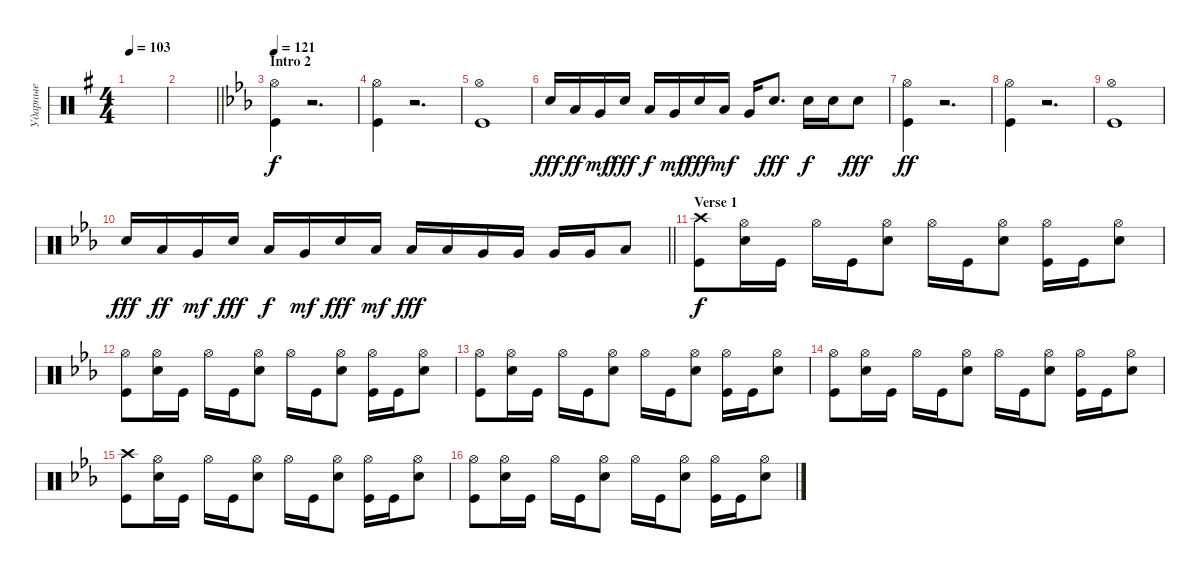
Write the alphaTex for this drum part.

\track ("Ударные" "Ударные") {instrument percussion}
\staff {score}
\articulation defaults
\ts (4 4)
\tempo 103
\clef neutral
\ks eminor
|
\barLineRight lightlight
|
\section ("" "Intro 2")
\tempo 121
\ks cminor
("Kick (hit)" "Hi-Hat (open)").4 r.2{d} |
("Kick (hit)" "Hi-Hat (open)").4 r.2{d} |
("Kick (hit)" "Hi-Hat (open)").1 |
"Snare (hit) 2".16{dy fff} "Low Tom (hit)".16{dy ff} "Very Low Tom (hit)".16{dy mf} "Snare (hit) 2".16{dy fff} "Low Tom (hit)".16{dy f} "Very Low Tom (hit)".16{dy mf} "Snare (hit) 2".16{dy fff} "Low Tom (hit)".16{dy mf} "Very Low Tom (hit)".16 "Snare (hit) 2".8{d dy fff} "Snare (hit) 2".16{dy f} "Snare (hit) 2".16 "Snare (hit) 2".8{dy fff} |
("Kick (hit)" "Hi-Hat (open)").4{dy ff} r.2{d} |
("Kick (hit)" "Hi-Hat (open)").4 r.2{d} |
("Kick (hit)" "Hi-Hat (open)").1 |
\barLineRight lightlight "Snare (hit) 2".16{dy fff} "Low Tom (hit)".16{dy ff} "Very Low Tom (hit)".16{dy mf} "Snare (hit) 2".16{dy fff} "Low Tom (hit)".16{dy f} "Very Low Tom (hit)".16{dy mf} "Snare (hit) 2".16{dy fff} "Low Tom (hit)".16{dy mf} "Low Tom (hit)".16{dy fff} "Low Tom (hit)".16 "Very Low Tom (hit)".16 "Very Low Tom (hit)".16 "Very Low Tom (hit)".16 "Very Low Tom (hit)".16 "Low Floor Tom (hit)".8
|
\section ("" "Verse 1")
("Kick (hit)" "Crash high (hit)").8{dy f} ("Snare (hit) 2" "Hi-Hat (open)").16 "Kick (hit)".16 "Hi-Hat (open)".16 "Kick (hit)".16 ("Snare (hit) 2" "Hi-Hat (open)").8 "Hi-Hat (open)".16 "Kick (hit)".16 ("Snare (hit) 2" "Hi-Hat (open)").8 ("Kick (hit)" "Hi-Hat (open)").16 "Kick (hit)".16 ("Snare (hit) 2" "Hi-Hat (open)").8 |
("Kick (hit)" "Hi-Hat (open)").8 ("Snare (hit) 2" "Hi-Hat (open)").16 "Kick (hit)".16 "Hi-Hat (open)".16 "Kick (hit)".16 ("Snare (hit) 2" "Hi-Hat (open)").8 "Hi-Hat (open)".16 "Kick (hit)".16 ("Snare (hit) 2" "Hi-Hat (open)").8 ("Kick (hit)" "Hi-Hat (open)").16 "Kick (hit)".16 ("Snare (hit) 2" "Hi-Hat (open)").8 |
("Kick (hit)" "Hi-Hat (open)").8 ("Snare (hit) 2" "Hi-Hat (open)").16 "Kick (hit)".16 "Hi-Hat (open)".16 "Kick (hit)".16 ("Snare (hit) 2" "Hi-Hat (open)").8 "Hi-Hat (open)".16 "Kick (hit)".16 ("Snare (hit) 2" "Hi-Hat (open)").8 ("Kick (hit)" "Hi-Hat (open)").16 "Kick (hit)".16 ("Snare (hit) 2" "Hi-Hat (open)").8 |
("Kick (hit)" "Hi-Hat (open)").8 ("Snare (hit) 2" "Hi-Hat (open)").16 "Kick (hit)".16 "Hi-Hat (open)".16 "Kick (hit)".16 ("Snare (hit) 2" "Hi-Hat (open)").8 "Hi-Hat (open)".16 "Kick (hit)".16 ("Snare (hit) 2" "Hi-Hat (open)").8 ("Kick (hit)" "Hi-Hat (open)").16 "Kick (hit)".16 ("Snare (hit) 2" "Hi-Hat (open)").8 |
("Kick (hit)" "Crash high (hit)").8 ("Snare (hit) 2" "Hi-Hat (open)").16 "Kick (hit)".16 "Hi-Hat (open)".16 "Kick (hit)".16 ("Snare (hit) 2" "Hi-Hat (open)").8 "Hi-Hat (open)".16 "Kick (hit)".16 ("Snare (hit) 2" "Hi-Hat (open)").8 ("Kick (hit)" "Hi-Hat (open)").16 "Kick (hit)".16 ("Snare (hit) 2" "Hi-Hat (open)").8 |
("Kick (hit)" "Hi-Hat (open)").8 ("Snare (hit) 2" "Hi-Hat (open)").16 "Kick (hit)".16 "Hi-Hat (open)".16 "Kick (hit)".16 ("Snare (hit) 2" "Hi-Hat (open)").8 "Hi-Hat (open)".16 "Kick (hit)".16 ("Snare (hit) 2" "Hi-Hat (open)").8 ("Kick (hit)" "Hi-Hat (open)").16 "Kick (hit)".16 ("Snare (hit) 2" "Hi-Hat (open)").8
